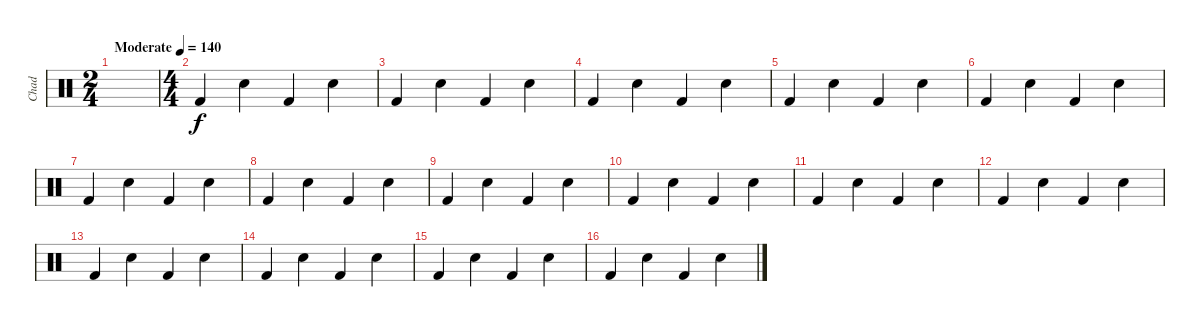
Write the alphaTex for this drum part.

\track ("Chad" "Chad") {instrument percussion}
\staff {score}
\articulation defaults
\ts (2 4)
\tempo (140 "Moderate")
\clef neutral
\ks c
|
\ts (4 4)
"Kick (hit) 2".4 "Electric Snare (hit)".4 "Kick (hit) 2".4 "Electric Snare (hit)".4 |
"Kick (hit) 2".4 "Electric Snare (hit)".4 "Kick (hit) 2".4 "Electric Snare (hit)".4 |
"Kick (hit) 2".4 "Electric Snare (hit)".4 "Kick (hit) 2".4 "Electric Snare (hit)".4 |
"Kick (hit) 2".4 "Electric Snare (hit)".4 "Kick (hit) 2".4 "Electric Snare (hit)".4 |
"Kick (hit) 2".4 "Electric Snare (hit)".4 "Kick (hit) 2".4 "Electric Snare (hit)".4 |
"Kick (hit) 2".4 "Electric Snare (hit)".4 "Kick (hit) 2".4 "Electric Snare (hit)".4 |
"Kick (hit) 2".4 "Electric Snare (hit)".4 "Kick (hit) 2".4 "Electric Snare (hit)".4 |
"Kick (hit) 2".4 "Electric Snare (hit)".4 "Kick (hit) 2".4 "Electric Snare (hit)".4 |
"Kick (hit) 2".4 "Electric Snare (hit)".4 "Kick (hit) 2".4 "Electric Snare (hit)".4 |
"Kick (hit) 2".4 "Electric Snare (hit)".4 "Kick (hit) 2".4 "Electric Snare (hit)".4 |
"Kick (hit) 2".4 "Electric Snare (hit)".4 "Kick (hit) 2".4 "Electric Snare (hit)".4 |
"Kick (hit) 2".4 "Electric Snare (hit)".4 "Kick (hit) 2".4 "Electric Snare (hit)".4 |
"Kick (hit) 2".4 "Electric Snare (hit)".4 "Kick (hit) 2".4 "Electric Snare (hit)".4 |
"Kick (hit) 2".4 "Electric Snare (hit)".4 "Kick (hit) 2".4 "Electric Snare (hit)".4 |
"Kick (hit) 2".4 "Electric Snare (hit)".4 "Kick (hit) 2".4 "Electric Snare (hit)".4
